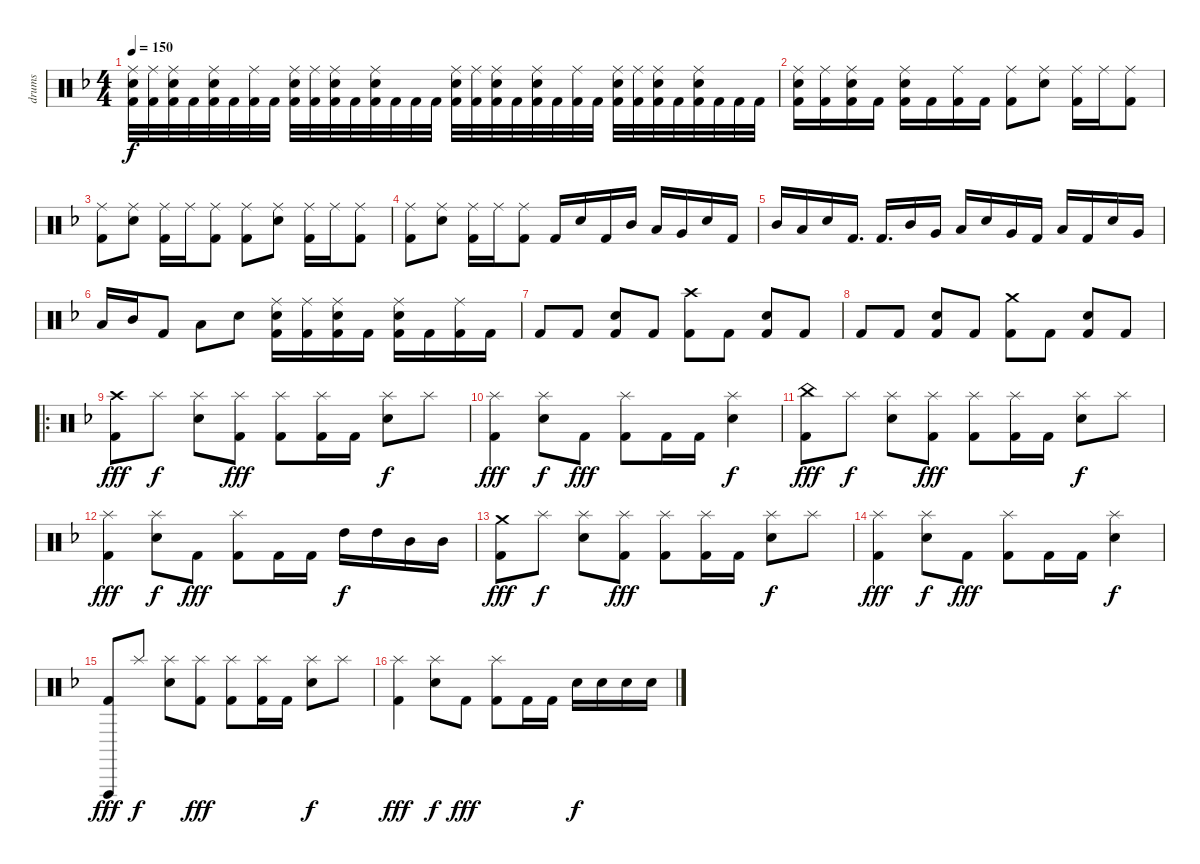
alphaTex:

\track ("drums" "drums") {instrument percussion}
\staff {score}
\articulation defaults
\ts (4 4)
\tempo 150
\clef neutral
\ks dminor
("Ride (middle)" "Electric Snare (hit)" "Kick (hit) 2").32{dy f} ("Ride (middle)" "Kick (hit) 2").32 ("Ride (middle)" "Electric Snare (hit)" "Kick (hit) 2").32 "Kick (hit) 2".32 ("Ride (middle)" "Electric Snare (hit)" "Kick (hit) 2").32 "Kick (hit) 2".32 ("Ride (middle)" "Kick (hit) 2").32 "Kick (hit) 2".32 ("Ride (middle)" "Electric Snare (hit)" "Kick (hit) 2").32 ("Ride (middle)" "Kick (hit) 2").32 ("Ride (middle)" "Electric Snare (hit)" "Kick (hit) 2").32 "Kick (hit) 2".32 ("Ride (middle)" "Electric Snare (hit)" "Kick (hit) 2").32 "Kick (hit) 2".32 "Kick (hit) 2".32 "Kick (hit) 2".32 ("Ride (middle)" "Electric Snare (hit)" "Kick (hit) 2").32 ("Ride (middle)" "Kick (hit) 2").32 ("Ride (middle)" "Electric Snare (hit)" "Kick (hit) 2").32 "Kick (hit) 2".32 ("Ride (middle)" "Electric Snare (hit)" "Kick (hit) 2").32 "Kick (hit) 2".32 ("Ride (middle)" "Kick (hit) 2").32 "Kick (hit) 2".32 ("Ride (middle)" "Electric Snare (hit)" "Kick (hit) 2").32 ("Ride (middle)" "Kick (hit) 2").32 ("Ride (middle)" "Electric Snare (hit)" "Kick (hit) 2").32 "Kick (hit) 2".32 ("Ride (middle)" "Electric Snare (hit)" "Kick (hit) 2").32 "Kick (hit) 2".32 "Kick (hit) 2".32 "Kick (hit) 2".32 |
("Ride (middle)" "Electric Snare (hit)" "Kick (hit) 2").16 ("Ride (middle)" "Kick (hit) 2").16 ("Ride (middle)" "Electric Snare (hit)" "Kick (hit) 2").16 "Kick (hit) 2".16 ("Ride (middle)" "Electric Snare (hit)" "Kick (hit) 2").16 "Kick (hit) 2".16 ("Ride (middle)" "Kick (hit) 2").16 "Kick (hit) 2".16 ("Ride (middle)" "Kick (hit) 2").8 ("Ride (middle)" "Electric Snare (hit)").8 ("Ride (middle)" "Kick (hit) 2").16 "Ride (middle)".16 ("Ride (middle)" "Kick (hit) 2").8 |
("Ride (middle)" "Kick (hit) 2").8 ("Ride (middle)" "Electric Snare (hit)").8 ("Ride (middle)" "Kick (hit) 2").16 "Ride (middle)".16 ("Ride (middle)" "Kick (hit) 2").8 ("Ride (middle)" "Kick (hit) 2").8 ("Ride (middle)" "Electric Snare (hit)").8 ("Ride (middle)" "Kick (hit) 2").16 "Ride (middle)".16 ("Ride (middle)" "Kick (hit) 2").8 |
("Ride (middle)" "Kick (hit) 2").8 ("Ride (middle)" "Electric Snare (hit)").8 ("Ride (middle)" "Kick (hit) 2").16 "Ride (middle)".16 ("Ride (middle)" "Kick (hit) 2").8 "Kick (hit) 2".16 "Electric Snare (hit)".16 "Kick (hit) 2".16 "Mid Tom (hit)".16 "Low Tom (hit)".16 "Very Low Tom (hit)".16 "Electric Snare (hit)".16 "Kick (hit) 2".16 |
"Mid Tom (hit)".16 "Low Tom (hit)".16 "Electric Snare (hit)".16 "Kick (hit) 2".16{d} "Kick (hit) 2".16{d} "Mid Tom (hit)".16 "Very Low Tom (hit)".16 "Low Tom (hit)".16 "Electric Snare (hit)".16 "Very Low Tom (hit)".16 "Kick (hit) 2".16 "Low Tom (hit)".16 "Kick (hit) 2".16 "Electric Snare (hit)".16 "Very Low Tom (hit)".16 |
"Low Tom (hit)".16 "Mid Tom (hit)".16 "Kick (hit) 2".8 "Low Tom (hit)".8 "Electric Snare (hit)".8 ("Ride (middle)" "Electric Snare (hit)" "Kick (hit) 2").16 ("Ride (middle)" "Kick (hit) 2").16 ("Ride (middle)" "Electric Snare (hit)" "Kick (hit) 2").16 "Kick (hit) 2".16 ("Ride (middle)" "Electric Snare (hit)" "Kick (hit) 2").16 "Kick (hit) 2".16 ("Ride (middle)" "Kick (hit) 2").16 "Kick (hit) 2".16 |
"Kick (hit) 2".8 "Kick (hit) 2".8 ("Electric Snare (hit)" "Kick (hit) 2").8 "Kick (hit) 2".8 ("Crash high (hit)" "Kick (hit) 2").8 "Kick (hit) 2".8 ("Electric Snare (hit)" "Kick (hit) 2").8 "Kick (hit) 2".8 |
"Kick (hit) 2".8 "Kick (hit) 2".8 ("Electric Snare (hit)" "Kick (hit) 2").8 "Kick (hit) 2".8 ("Crash medium (hit)" "Kick (hit) 2").8 "Kick (hit) 2".8 ("Electric Snare (hit)" "Kick (hit) 2").8 "Kick (hit) 2".8 |
\ro
("Crash high (hit)" "Kick (hit) 2").8{dy fff} "Splash (hit)".8{dy f} ("Splash (hit)" "Electric Snare (hit)").8 ("Splash (hit)" "Kick (hit) 2").8{dy fff} ("Splash (hit)" "Kick (hit) 2").8 ("Splash (hit)" "Kick (hit) 2").16 "Kick (hit) 2".16 ("Splash (hit)" "Electric Snare (hit)").8{dy f} "Splash (hit)".8 |
("Splash (hit)" "Kick (hit) 2").4{dy fff} ("Splash (hit)" "Electric Snare (hit)").8{dy f} "Kick (hit) 2".8{dy fff} ("Splash (hit)" "Kick (hit) 2").8 "Kick (hit) 2".16 "Kick (hit) 2".16 ("Splash (hit)" "Electric Snare (hit)").4{dy f} |
("China (hit)" "Kick (hit) 2").8{dy fff} "Splash (hit)".8{dy f} ("Splash (hit)" "Electric Snare (hit)").8 ("Splash (hit)" "Kick (hit) 2").8{dy fff} ("Splash (hit)" "Kick (hit) 2").8 ("Splash (hit)" "Kick (hit) 2").16 "Kick (hit) 2".16 ("Splash (hit)" "Electric Snare (hit)").8{dy f} "Splash (hit)".8 |
("Splash (hit)" "Kick (hit) 2").4{dy fff} ("Splash (hit)" "Electric Snare (hit)").8{dy f} "Kick (hit) 2".8{dy fff} ("Splash (hit)" "Kick (hit) 2").8 "Kick (hit) 2".16 "Kick (hit) 2".16 "High Tom (hit)".16{dy f} "High Tom (hit)".16 "Mid Tom (hit)".16 "Mid Tom (hit)".16 |
("Crash medium (hit)" "Kick (hit) 2").8{dy fff} "Splash (hit)".8{dy f} ("Splash (hit)" "Electric Snare (hit)").8 ("Splash (hit)" "Kick (hit) 2").8{dy fff} ("Splash (hit)" "Kick (hit) 2").8 ("Splash (hit)" "Kick (hit) 2").16 "Kick (hit) 2".16 ("Splash (hit)" "Electric Snare (hit)").8{dy f} "Splash (hit)".8 |
("Splash (hit)" "Kick (hit) 2").4{dy fff} ("Splash (hit)" "Electric Snare (hit)").8{dy f} "Kick (hit) 2".8{dy fff} ("Splash (hit)" "Kick (hit) 2").8 "Kick (hit) 2".16 "Kick (hit) 2".16 ("Splash (hit)" "Electric Snare (hit)").4{dy f} |
("Vibraslap (hit)" "Kick (hit) 2").8{dy fff} "Splash (hit)".8{dy f} ("Splash (hit)" "Electric Snare (hit)").8 ("Splash (hit)" "Kick (hit) 2").8{dy fff} ("Splash (hit)" "Kick (hit) 2").8 ("Splash (hit)" "Kick (hit) 2").16 "Kick (hit) 2".16 ("Splash (hit)" "Electric Snare (hit)").8{dy f} "Splash (hit)".8 |
("Splash (hit)" "Kick (hit) 2").4{dy fff} ("Splash (hit)" "Electric Snare (hit)").8{dy f} "Kick (hit) 2".8{dy fff} ("Splash (hit)" "Kick (hit) 2").8 "Kick (hit) 2".16 "Kick (hit) 2".16 "Electric Snare (hit)".16{dy f} "Electric Snare (hit)".16 "Electric Snare (hit)".16 "Electric Snare (hit)".16
